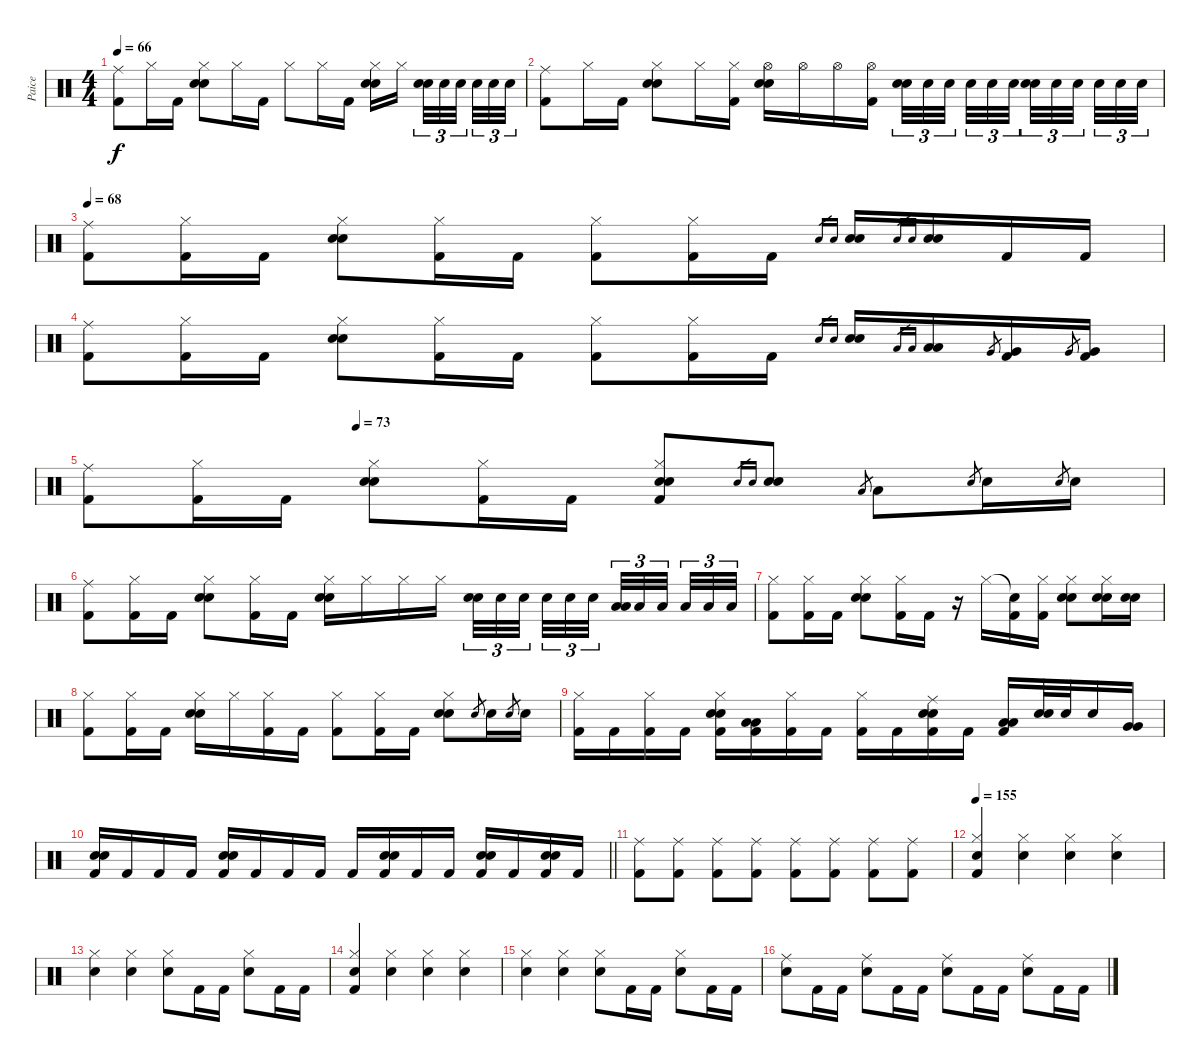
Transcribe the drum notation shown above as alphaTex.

\track ("Paice" "Paice") {instrument percussion}
\staff {score}
\articulation defaults
\ts (4 4)
\tempo 66
\clef neutral
\ks c
("Ride (middle)" "Kick (hit) 2").8{dy f} "Hi-Hat (closed)".16 "Kick (hit) 2".16 ("Hi-Hat (closed)" "Electric Snare (hit)" "Electric Snare (hit)").8 "Hi-Hat (closed)".16 "Kick (hit) 2".16 "Hi-Hat (closed)".8 "Hi-Hat (closed)".16 "Kick (hit) 2".16 ("Hi-Hat (closed)" "Electric Snare (hit)" "Electric Snare (hit)").16 "Hi-Hat (closed)".16{beam splitsecondary} ("Electric Snare (hit)" "Electric Snare (hit)").32{tu (3 2)} "Electric Snare (hit)".32{tu (3 2)} "Electric Snare (hit)".32{tu (3 2) beam splitsecondary} "Electric Snare (hit)".32{tu (3 2)} "Electric Snare (hit)".32{tu (3 2)} "Electric Snare (hit)".32{tu (3 2)} |
("Ride (middle)" "Kick (hit) 2").8 "Hi-Hat (closed)".16 "Kick (hit) 2".16 ("Hi-Hat (closed)" "Electric Snare (hit)" "Electric Snare (hit)").8 "Hi-Hat (closed)".16 ("Hi-Hat (closed)" "Kick (hit) 2").16 ("Hi-Hat (open)" "Electric Snare (hit)" "Electric Snare (hit)").16 "Hi-Hat (open)".16 "Hi-Hat (open)".16 ("Hi-Hat (open)" "Kick (hit) 2").16 ("Electric Snare (hit)" "Electric Snare (hit)").32{tu (3 2)} "Electric Snare (hit)".32{tu (3 2)} "Electric Snare (hit)".32{tu (3 2) beam splitsecondary} "Electric Snare (hit)".32{tu (3 2)} "Electric Snare (hit)".32{tu (3 2)} "Electric Snare (hit)".32{tu (3 2) beam splitsecondary} ("Electric Snare (hit)" "Electric Snare (hit)").32{tu (3 2)} "Electric Snare (hit)".32{tu (3 2)} "Electric Snare (hit)".32{tu (3 2) beam splitsecondary} "Electric Snare (hit)".32{tu (3 2)} "Electric Snare (hit)".32{tu (3 2)} "Electric Snare (hit)".32{tu (3 2)} |
\tempo 70
\tempo 68
("Ride (middle)" "Kick (hit) 2").8 ("Hi-Hat (closed)" "Kick (hit) 2").16 "Kick (hit) 2".16 ("Hi-Hat (closed)" "Electric Snare (hit)" "Electric Snare (hit)").8 ("Hi-Hat (closed)" "Kick (hit) 2").16 "Kick (hit) 2".16 ("Hi-Hat (closed)" "Kick (hit) 2").8 ("Hi-Hat (closed)" "Kick (hit) 2").16 "Kick (hit) 2".16 "Electric Snare (hit)".16{gr} "Electric Snare (hit)".16{gr} ("Electric Snare (hit)" "Electric Snare (hit)").16 "Electric Snare (hit)".16{gr} "Electric Snare (hit)".16{gr} ("Electric Snare (hit)" "Electric Snare (hit)").16 "Kick (hit) 2".16 "Kick (hit) 2".16 |
("Ride (middle)" "Kick (hit) 2").8 ("Hi-Hat (closed)" "Kick (hit) 2").16 "Kick (hit) 2".16 ("Hi-Hat (closed)" "Electric Snare (hit)" "Electric Snare (hit)").8 ("Hi-Hat (closed)" "Kick (hit) 2").16 "Kick (hit) 2".16 ("Hi-Hat (closed)" "Kick (hit) 2").8 ("Hi-Hat (closed)" "Kick (hit) 2").16 "Kick (hit) 2".16 "Electric Snare (hit)".16{gr} "Electric Snare (hit)".16{gr} ("Electric Snare (hit)" "Electric Snare (hit)").16 "Low Tom (hit)".16{gr} "Low Tom (hit)".16{gr} ("Low Tom (hit)" "Low Tom (hit)").16 "Very Low Tom (hit)".8{gr} ("Very Low Tom (hit)" "Kick (hit) 2").16 "Very Low Tom (hit)".8{gr} ("Very Low Tom (hit)" "Kick (hit) 2").16 |
\tempo (73 0.25)
("Ride (middle)" "Kick (hit) 2").8 ("Hi-Hat (closed)" "Kick (hit) 2").16 "Kick (hit) 2".16 ("Hi-Hat (closed)" "Electric Snare (hit)" "Electric Snare (hit)").8 ("Hi-Hat (closed)" "Kick (hit) 2").16 "Kick (hit) 2".16 ("Hi-Hat (closed)" "Electric Snare (hit)" "Electric Snare (hit)" "Kick (hit) 2").8 "Electric Snare (hit)".16{gr} "Electric Snare (hit)".16{gr} ("Electric Snare (hit)" "Electric Snare (hit)").8 "Low Tom (hit)".8{gr} "Low Tom (hit)".8 "Electric Snare (hit)".8{gr} "Electric Snare (hit)".16 "Electric Snare (hit)".8{gr} "Electric Snare (hit)".16 |
("Ride (middle)" "Kick (hit) 2").8 ("Hi-Hat (closed)" "Kick (hit) 2").16 "Kick (hit) 2".16 ("Hi-Hat (closed)" "Electric Snare (hit)" "Electric Snare (hit)").8 ("Hi-Hat (closed)" "Kick (hit) 2").16 "Kick (hit) 2".16 ("Hi-Hat (closed)" "Electric Snare (hit)" "Electric Snare (hit)").16 "Hi-Hat (closed)".16 "Hi-Hat (closed)".16 "Hi-Hat (closed)".16 ("Electric Snare (hit)" "Electric Snare (hit)").32{tu (3 2)} "Electric Snare (hit)".32{tu (3 2)} "Electric Snare (hit)".32{tu (3 2) beam splitsecondary} "Electric Snare (hit)".32{tu (3 2)} "Electric Snare (hit)".32{tu (3 2)} "Electric Snare (hit)".32{tu (3 2) beam splitsecondary} ("Low Tom (hit)" "Low Tom (hit)").32{tu (3 2)} "Low Tom (hit)".32{tu (3 2)} "Low Tom (hit)".32{tu (3 2) beam splitsecondary} "Low Tom (hit)".32{tu (3 2)} "Low Tom (hit)".32{tu (3 2)} "Low Tom (hit)".32{tu (3 2)} |
("Hi-Hat (closed)" "Kick (hit) 2").8 ("Hi-Hat (closed)" "Kick (hit) 2").16 "Kick (hit) 2".16 ("Hi-Hat (closed)" "Electric Snare (hit)" "Electric Snare (hit)").8 ("Hi-Hat (closed)" "Kick (hit) 2").16 "Kick (hit) 2".16 r.16 "Hi-Hat (closed)".16 ("Snare (hit)"{t} "Kick (hit) 2").16 ("Hi-Hat (closed)" "Kick (hit) 2").16 ("Hi-Hat (closed)" "Electric Snare (hit)" "Electric Snare (hit)").8 ("Hi-Hat (closed)" "Electric Snare (hit)" "Electric Snare (hit)").16 ("Electric Snare (hit)" "Electric Snare (hit)").16 |
("Hi-Hat (closed)" "Kick (hit) 2").8 ("Hi-Hat (closed)" "Kick (hit) 2").16 "Kick (hit) 2".16 ("Hi-Hat (closed)" "Electric Snare (hit)" "Electric Snare (hit)").16 "Hi-Hat (closed)".16 ("Hi-Hat (closed)" "Kick (hit) 2").16 "Kick (hit) 2".16 ("Hi-Hat (closed)" "Kick (hit) 2").8 ("Hi-Hat (closed)" "Kick (hit) 2").16 "Kick (hit) 2".16 ("Hi-Hat (closed)" "Electric Snare (hit)" "Electric Snare (hit)").8 "Electric Snare (hit)".8{gr} "Electric Snare (hit)".16 "Electric Snare (hit)".8{gr} "Electric Snare (hit)".16 |
("Hi-Hat (closed)" "Kick (hit) 2").16 "Kick (hit) 2".16 ("Hi-Hat (closed)" "Kick (hit) 2").16 "Kick (hit) 2".16 ("Hi-Hat (closed)" "Electric Snare (hit)" "Electric Snare (hit)" "Kick (hit) 2").16 ("Low Tom (hit)" "Low Tom (hit)" "Kick (hit) 2").16 ("Hi-Hat (closed)" "Kick (hit) 2").16 "Kick (hit) 2".16 ("Hi-Hat (closed)" "Kick (hit) 2").16 "Kick (hit) 2".16 ("Ride (middle)" "Electric Snare (hit)" "Electric Snare (hit)" "Kick (hit) 2").16 "Kick (hit) 2".16 ("Low Tom (hit)" "Low Tom (hit)" "Kick (hit) 2").16 ("Electric Snare (hit)" "Electric Snare (hit)").32 "Electric Snare (hit)".32 "Electric Snare (hit)".16 ("Very Low Tom (hit)" "Very Low Tom (hit)").16 |
\barLineRight lightlight
("Electric Snare (hit)" "Electric Snare (hit)" "Kick (hit) 2").16 "Kick (hit) 2".16 "Kick (hit) 2".16 "Kick (hit) 2".16 ("Electric Snare (hit)" "Electric Snare (hit)" "Kick (hit) 2").16 "Kick (hit) 2".16 "Kick (hit) 2".16 "Kick (hit) 2".16 "Kick (hit) 2".16 ("Electric Snare (hit)" "Electric Snare (hit)" "Kick (hit) 2").16 "Kick (hit) 2".16 "Kick (hit) 2".16 ("Electric Snare (hit)" "Electric Snare (hit)" "Kick (hit) 2").16 "Kick (hit) 2".16 ("Electric Snare (hit)" "Electric Snare (hit)" "Kick (hit) 2").16 "Kick (hit) 2".16 |
("Ride (middle)" "Kick (hit) 2").8 ("Ride (middle)" "Kick (hit) 2").8 ("Ride (middle)" "Kick (hit) 2").8 ("Ride (middle)" "Kick (hit) 2").8 ("Ride (middle)" "Kick (hit) 2").8 ("Ride (middle)" "Kick (hit) 2").8 ("Ride (middle)" "Kick (hit) 2").8 ("Ride (middle)" "Kick (hit) 2").8 |
\tempo 155
("Hi-Hat (closed)" "Snare (hit) 2" "Kick (hit) 2").4 ("Hi-Hat (closed)" "Snare (hit) 2").4 ("Hi-Hat (closed)" "Snare (hit) 2").4 ("Hi-Hat (closed)" "Snare (hit) 2").4 |
("Hi-Hat (closed)" "Snare (hit) 2").4 ("Hi-Hat (closed)" "Snare (hit) 2").4 ("Hi-Hat (closed)" "Snare (hit) 2").8 "Kick (hit) 2".16 "Kick (hit) 2".16 ("Hi-Hat (closed)" "Snare (hit) 2").8 "Kick (hit) 2".16 "Kick (hit) 2".16 |
("Hi-Hat (closed)" "Snare (hit) 2" "Kick (hit) 2").4 ("Hi-Hat (closed)" "Snare (hit) 2").4 ("Hi-Hat (closed)" "Snare (hit) 2").4 ("Hi-Hat (closed)" "Snare (hit) 2").4 |
("Hi-Hat (closed)" "Snare (hit) 2").4 ("Hi-Hat (closed)" "Snare (hit) 2").4 ("Hi-Hat (closed)" "Snare (hit) 2").8 "Kick (hit) 2".16 "Kick (hit) 2".16 ("Hi-Hat (closed)" "Snare (hit) 2").8 "Kick (hit) 2".16 "Kick (hit) 2".16 |
("Ride (middle)" "Snare (hit) 2").8 "Kick (hit) 2".16 "Kick (hit) 2".16 ("Ride (middle)" "Snare (hit) 2").8 "Kick (hit) 2".16 "Kick (hit) 2".16 ("Ride (middle)" "Snare (hit) 2").8 "Kick (hit) 2".16 "Kick (hit) 2".16 ("Ride (middle)" "Snare (hit) 2").8 "Kick (hit) 2".16 "Kick (hit) 2".16
